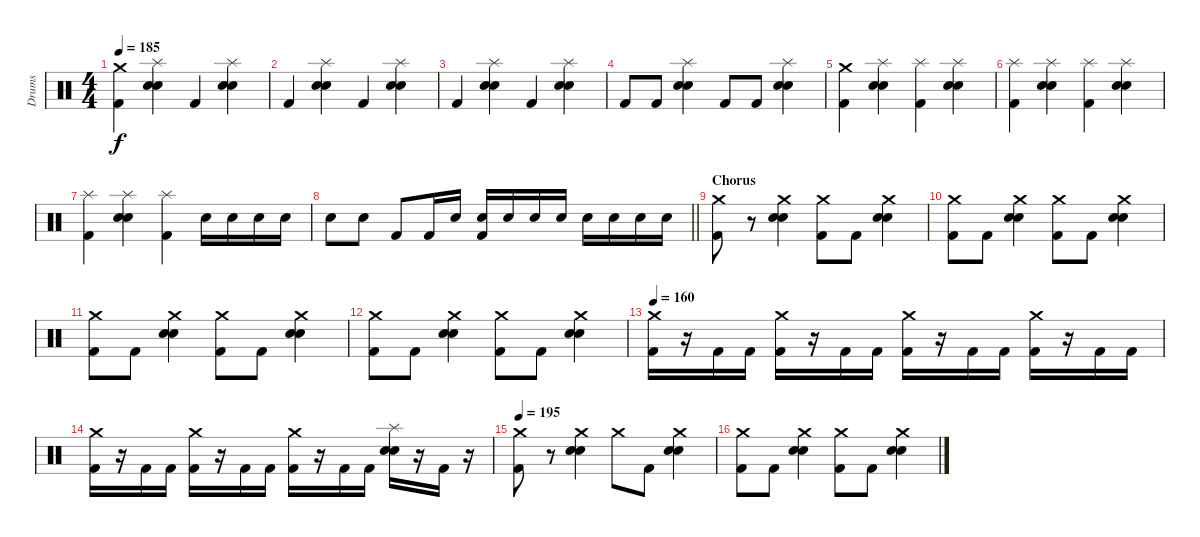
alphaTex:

\track ("Drums" "Drums") {instrument percussion}
\staff {score}
\articulation defaults
\ts (4 4)
\tempo 185
\clef neutral
\ks c
("Crash medium (hit)" "Kick (hit) 2").4{dy f} ("Splash (hit)" "Electric Snare (hit)" "Snare (hit) 2").4 "Kick (hit) 2".4 ("Splash (hit)" "Electric Snare (hit)" "Snare (hit) 2").4 |
"Kick (hit) 2".4 ("Splash (hit)" "Electric Snare (hit)" "Snare (hit) 2").4 "Kick (hit) 2".4 ("Splash (hit)" "Electric Snare (hit)" "Snare (hit) 2").4 |
"Kick (hit) 2".4 ("Splash (hit)" "Electric Snare (hit)" "Snare (hit) 2").4 "Kick (hit) 2".4 ("Splash (hit)" "Electric Snare (hit)" "Snare (hit) 2").4 |
"Kick (hit) 2".8 "Kick (hit) 2".8 ("Splash (hit)" "Electric Snare (hit)" "Snare (hit) 2").4 "Kick (hit) 2".8 "Kick (hit) 2".8 ("Splash (hit)" "Electric Snare (hit)" "Snare (hit) 2").4 |
("Crash medium (hit)" "Kick (hit) 2").4 ("Splash (hit)" "Electric Snare (hit)" "Snare (hit) 2").4 ("Splash (hit)" "Kick (hit) 2").4 ("Splash (hit)" "Electric Snare (hit)" "Snare (hit) 2").4 |
("Splash (hit)" "Kick (hit) 2").4 ("Splash (hit)" "Electric Snare (hit)" "Snare (hit) 2").4 ("Splash (hit)" "Kick (hit) 2").4 ("Splash (hit)" "Electric Snare (hit)" "Snare (hit) 2").4 |
("Splash (hit)" "Kick (hit) 2").4 ("Splash (hit)" "Electric Snare (hit)" "Snare (hit) 2").4 ("Splash (hit)" "Kick (hit) 2").4 "Electric Snare (hit)".16 "Electric Snare (hit)".16 "Electric Snare (hit)".16 "Electric Snare (hit)".16 |
\barLineRight lightlight "Electric Snare (hit)".8 "Electric Snare (hit)".8 "Kick (hit) 2".8 "Kick (hit) 2".16 "Electric Snare (hit)".16
("Electric Snare (hit)" "Kick (hit) 2").16 "Electric Snare (hit)".16 "Electric Snare (hit)".16 "Electric Snare (hit)".16 "Electric Snare (hit)".16 "Electric Snare (hit)".16 "Electric Snare (hit)".16 "Electric Snare (hit)".16 |
\section ("" "Chorus")
("Crash medium (hit)" "Kick (hit) 2").8 r.8 ("Crash medium (hit)" "Electric Snare (hit)" "Snare (hit) 2").4 ("Crash medium (hit)" "Kick (hit) 2").8 "Kick (hit) 2".8 ("Crash medium (hit)" "Electric Snare (hit)" "Snare (hit) 2").4 |
("Crash medium (hit)" "Kick (hit) 2").8 "Kick (hit) 2".8 ("Crash medium (hit)" "Electric Snare (hit)" "Snare (hit) 2").4 ("Crash medium (hit)" "Kick (hit) 2").8 "Kick (hit) 2".8 ("Crash medium (hit)" "Electric Snare (hit)" "Snare (hit) 2").4 |
("Crash medium (hit)" "Kick (hit) 2").8 "Kick (hit) 2".8 ("Crash medium (hit)" "Electric Snare (hit)" "Snare (hit) 2").4 ("Crash medium (hit)" "Kick (hit) 2").8 "Kick (hit) 2".8 ("Crash medium (hit)" "Electric Snare (hit)" "Snare (hit) 2").4 |
("Crash medium (hit)" "Kick (hit) 2").8 "Kick (hit) 2".8 ("Crash medium (hit)" "Electric Snare (hit)" "Snare (hit) 2").4 ("Crash medium (hit)" "Kick (hit) 2").8 "Kick (hit) 2".8 ("Crash medium (hit)" "Electric Snare (hit)" "Snare (hit) 2").4 |
\tempo 160
("Crash medium (hit)" "Kick (hit) 2").16 r.16 "Kick (hit) 2".16 "Kick (hit) 2".16 ("Crash medium (hit)" "Kick (hit) 2").16 r.16 "Kick (hit) 2".16 "Kick (hit) 2".16 ("Crash medium (hit)" "Kick (hit) 2").16 r.16 "Kick (hit) 2".16 "Kick (hit) 2".16 ("Crash medium (hit)" "Kick (hit) 2").16 r.16 "Kick (hit) 2".16 "Kick (hit) 2".16 |
("Crash medium (hit)" "Kick (hit) 2").16 r.16 "Kick (hit) 2".16 "Kick (hit) 2".16 ("Crash medium (hit)" "Kick (hit) 2").16 r.16 "Kick (hit) 2".16 "Kick (hit) 2".16 ("Crash medium (hit)" "Kick (hit) 2").16 r.16 "Kick (hit) 2".16 "Kick (hit) 2".16 ("Splash (hit)" "Electric Snare (hit)" "Snare (hit) 2").16 r.16 "Kick (hit) 2".16 r.16 |
\tempo 195
("Crash medium (hit)" "Kick (hit) 2").8 r.8 ("Crash medium (hit)" "Electric Snare (hit)" "Snare (hit) 2").4 "Crash medium (hit)".8 "Kick (hit) 2".8 ("Crash medium (hit)" "Electric Snare (hit)" "Snare (hit) 2").4 |
("Crash medium (hit)" "Kick (hit) 2").8 "Kick (hit) 2".8 ("Crash medium (hit)" "Electric Snare (hit)" "Snare (hit) 2").4 ("Crash medium (hit)" "Kick (hit) 2").8 "Kick (hit) 2".8 ("Crash medium (hit)" "Electric Snare (hit)" "Snare (hit) 2").4
